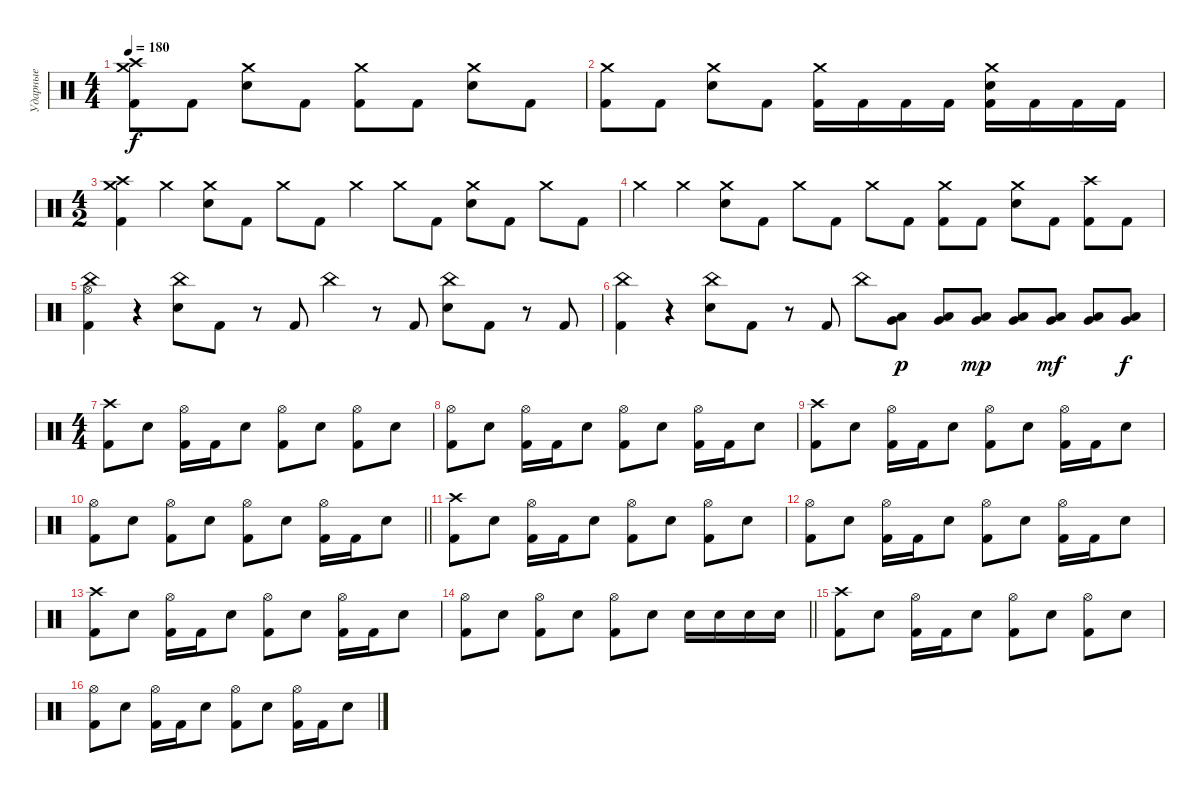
\track ("Ударные" "Ударные") {instrument percussion}
\staff {score}
\articulation defaults
\ts (4 4)
\tempo 180
\clef neutral
\ks c
("Crash high (hit)" "Crash medium (hit)" "Kick (hit) 2").8{dy f} "Kick (hit) 2".8 ("Crash medium (hit)" "Electric Snare (hit)").8 "Kick (hit) 2".8 ("Crash medium (hit)" "Kick (hit) 2").8 "Kick (hit) 2".8 ("Crash medium (hit)" "Electric Snare (hit)").8 "Kick (hit) 2".8 |
("Crash medium (hit)" "Kick (hit) 2").8 "Kick (hit) 2".8 ("Crash medium (hit)" "Electric Snare (hit)").8 "Kick (hit) 2".8 ("Crash medium (hit)" "Kick (hit) 2").16 "Kick (hit) 2".16 "Kick (hit) 2".16 "Kick (hit) 2".16 ("Crash medium (hit)" "Electric Snare (hit)" "Kick (hit) 2").16 "Kick (hit) 2".16 "Kick (hit) 2".16 "Kick (hit) 2".16 |
\ts (4 2)
("Crash medium (hit)" "Crash high (hit)" "Kick (hit) 2").4 "Crash medium (hit)".4 ("Crash medium (hit)" "Electric Snare (hit)").8 "Kick (hit) 2".8 "Crash medium (hit)".8 "Kick (hit) 2".8 "Crash medium (hit)".4 "Crash medium (hit)".8 "Kick (hit) 2".8 ("Crash medium (hit)" "Electric Snare (hit)").8 "Kick (hit) 2".8 "Crash medium (hit)".8 "Kick (hit) 2".8 |
"Crash medium (hit)".4 "Crash medium (hit)".4 ("Crash medium (hit)" "Electric Snare (hit)").8 "Kick (hit) 2".8 "Crash medium (hit)".8 "Kick (hit) 2".8 "Crash medium (hit)".8 "Kick (hit) 2".8 ("Crash medium (hit)" "Kick (hit) 2").8 "Kick (hit) 2".8 ("Crash medium (hit)" "Electric Snare (hit)").8 "Kick (hit) 2".8 ("Crash high (hit)" "Kick (hit) 2").8 "Kick (hit) 2".8 |
("China (hit)" "Hi-Hat (open)" "Kick (hit) 2").4 r.4 ("China (hit)" "Electric Snare (hit)").8 "Kick (hit) 2".8 r.8 "Kick (hit) 2".8 "China (hit)".4 r.8 "Kick (hit) 2".8 ("China (hit)" "Electric Snare (hit)").8 "Kick (hit) 2".8 r.8 "Kick (hit) 2".8 |
("China (hit)" "Kick (hit) 2").4 r.4 ("China (hit)" "Electric Snare (hit)").8 "Kick (hit) 2".8 r.8 "Kick (hit) 2".8 "China (hit)".8 ("Low Tom (hit)" "Very Low Tom (hit)").8{dy p} ("Low Tom (hit)" "Very Low Tom (hit)").8 ("Low Tom (hit)" "Very Low Tom (hit)").8{dy mp} ("Low Tom (hit)" "Very Low Tom (hit)").8 ("Low Tom (hit)" "Very Low Tom (hit)").8{dy mf} ("Low Tom (hit)" "Very Low Tom (hit)").8 ("Low Tom (hit)" "Very Low Tom (hit)").8{dy f} |
\ts (4 4)
("Crash high (hit)" "Kick (hit) 2").8 "Electric Snare (hit)".8 ("Hi-Hat (open)" "Kick (hit) 2").16 "Kick (hit) 2".16 "Electric Snare (hit)".8 ("Hi-Hat (open)" "Kick (hit) 2").8 "Electric Snare (hit)".8 ("Hi-Hat (open)" "Kick (hit) 2").8 "Electric Snare (hit)".8 |
("Hi-Hat (open)" "Kick (hit) 2").8 "Electric Snare (hit)".8 ("Hi-Hat (open)" "Kick (hit) 2").16 "Kick (hit) 2".16 "Electric Snare (hit)".8 ("Hi-Hat (open)" "Kick (hit) 2").8 "Electric Snare (hit)".8 ("Hi-Hat (open)" "Kick (hit) 2").16 "Kick (hit) 2".16 "Electric Snare (hit)".8 |
("Crash high (hit)" "Kick (hit) 2").8 "Electric Snare (hit)".8 ("Hi-Hat (open)" "Kick (hit) 2").16 "Kick (hit) 2".16 "Electric Snare (hit)".8 ("Hi-Hat (open)" "Kick (hit) 2").8 "Electric Snare (hit)".8 ("Hi-Hat (open)" "Kick (hit) 2").16 "Kick (hit) 2".16 "Electric Snare (hit)".8 |
\barLineRight lightlight
("Hi-Hat (open)" "Kick (hit) 2").8 "Electric Snare (hit)".8 ("Hi-Hat (open)" "Kick (hit) 2").8 "Electric Snare (hit)".8 ("Hi-Hat (open)" "Kick (hit) 2").8 "Electric Snare (hit)".8 ("Hi-Hat (open)" "Kick (hit) 2").16 "Kick (hit) 2".16 "Electric Snare (hit)".8 |
("Crash high (hit)" "Kick (hit) 2").8 "Electric Snare (hit)".8 ("Hi-Hat (open)" "Kick (hit) 2").16 "Kick (hit) 2".16 "Electric Snare (hit)".8 ("Hi-Hat (open)" "Kick (hit) 2").8 "Electric Snare (hit)".8 ("Hi-Hat (open)" "Kick (hit) 2").8 "Electric Snare (hit)".8 |
("Hi-Hat (open)" "Kick (hit) 2").8 "Electric Snare (hit)".8 ("Hi-Hat (open)" "Kick (hit) 2").16 "Kick (hit) 2".16 "Electric Snare (hit)".8 ("Hi-Hat (open)" "Kick (hit) 2").8 "Electric Snare (hit)".8 ("Hi-Hat (open)" "Kick (hit) 2").16 "Kick (hit) 2".16 "Electric Snare (hit)".8 |
("Crash high (hit)" "Kick (hit) 2").8 "Electric Snare (hit)".8 ("Hi-Hat (open)" "Kick (hit) 2").16 "Kick (hit) 2".16 "Electric Snare (hit)".8 ("Hi-Hat (open)" "Kick (hit) 2").8 "Electric Snare (hit)".8 ("Hi-Hat (open)" "Kick (hit) 2").16 "Kick (hit) 2".16 "Electric Snare (hit)".8 |
\barLineRight lightlight
("Hi-Hat (open)" "Kick (hit) 2").8 "Electric Snare (hit)".8 ("Hi-Hat (open)" "Kick (hit) 2").8 "Electric Snare (hit)".8 ("Hi-Hat (open)" "Kick (hit) 2").8 "Electric Snare (hit)".8 "Electric Snare (hit)".16 "Electric Snare (hit)".16 "Electric Snare (hit)".16 "Electric Snare (hit)".16 |
("Crash high (hit)" "Kick (hit) 2").8 "Electric Snare (hit)".8 ("Hi-Hat (open)" "Kick (hit) 2").16 "Kick (hit) 2".16 "Electric Snare (hit)".8 ("Hi-Hat (open)" "Kick (hit) 2").8 "Electric Snare (hit)".8 ("Hi-Hat (open)" "Kick (hit) 2").8 "Electric Snare (hit)".8 |
("Hi-Hat (open)" "Kick (hit) 2").8 "Electric Snare (hit)".8 ("Hi-Hat (open)" "Kick (hit) 2").16 "Kick (hit) 2".16 "Electric Snare (hit)".8 ("Hi-Hat (open)" "Kick (hit) 2").8 "Electric Snare (hit)".8 ("Hi-Hat (open)" "Kick (hit) 2").16 "Kick (hit) 2".16 "Electric Snare (hit)".8
